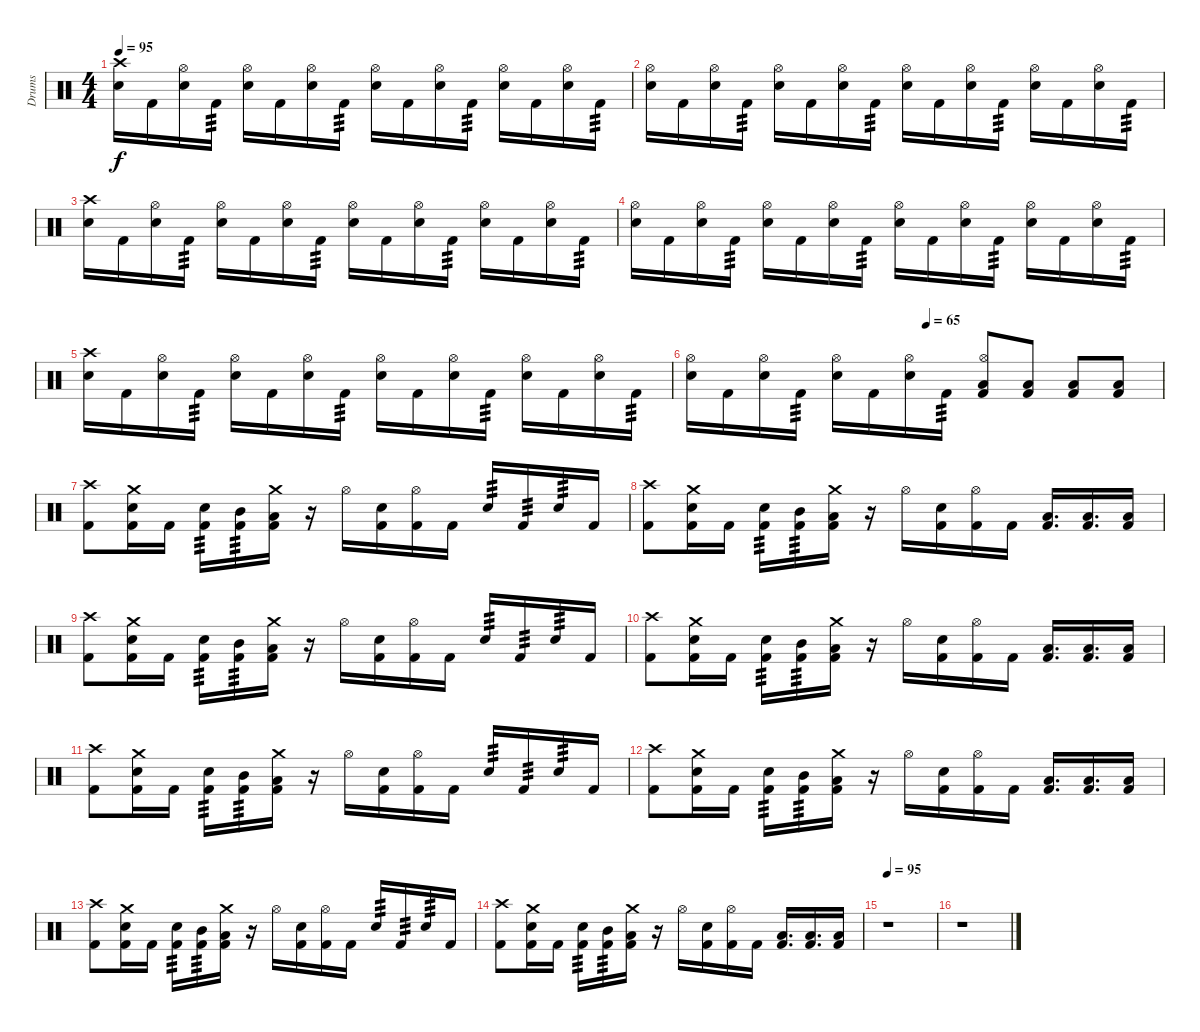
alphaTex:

\track ("Drums" "Drums") {instrument percussion}
\staff {score}
\articulation defaults
\ts (4 4)
\tempo 95
\clef neutral
\ks c
("Crash high (hit)" "Electric Snare (hit)").16{dy f} "Kick (hit) 2".16 ("Hi-Hat (open)" "Electric Snare (hit)").16 "Kick (hit) 2".16{tp 3} ("Hi-Hat (open)" "Electric Snare (hit)").16 "Kick (hit) 2".16 ("Hi-Hat (open)" "Electric Snare (hit)").16 "Kick (hit) 2".16{tp 3} ("Hi-Hat (open)" "Electric Snare (hit)").16 "Kick (hit) 2".16 ("Hi-Hat (open)" "Electric Snare (hit)").16 "Kick (hit) 2".16{tp 3} ("Hi-Hat (open)" "Electric Snare (hit)").16 "Kick (hit) 2".16 ("Hi-Hat (open)" "Electric Snare (hit)").16 "Kick (hit) 2".16{tp 3} |
("Hi-Hat (open)" "Electric Snare (hit)").16 "Kick (hit) 2".16 ("Hi-Hat (open)" "Electric Snare (hit)").16 "Kick (hit) 2".16{tp 3} ("Hi-Hat (open)" "Electric Snare (hit)").16 "Kick (hit) 2".16 ("Hi-Hat (open)" "Electric Snare (hit)").16 "Kick (hit) 2".16{tp 3} ("Hi-Hat (open)" "Electric Snare (hit)").16 "Kick (hit) 2".16 ("Hi-Hat (open)" "Electric Snare (hit)").16 "Kick (hit) 2".16{tp 3} ("Hi-Hat (open)" "Electric Snare (hit)").16 "Kick (hit) 2".16 ("Hi-Hat (open)" "Electric Snare (hit)").16 "Kick (hit) 2".16{tp 3} |
("Crash high (hit)" "Electric Snare (hit)").16 "Kick (hit) 2".16 ("Hi-Hat (open)" "Electric Snare (hit)").16 "Kick (hit) 2".16{tp 3} ("Hi-Hat (open)" "Electric Snare (hit)").16 "Kick (hit) 2".16 ("Hi-Hat (open)" "Electric Snare (hit)").16 "Kick (hit) 2".16{tp 3} ("Hi-Hat (open)" "Electric Snare (hit)").16 "Kick (hit) 2".16 ("Hi-Hat (open)" "Electric Snare (hit)").16 "Kick (hit) 2".16{tp 3} ("Hi-Hat (open)" "Electric Snare (hit)").16 "Kick (hit) 2".16 ("Hi-Hat (open)" "Electric Snare (hit)").16 "Kick (hit) 2".16{tp 3} |
("Hi-Hat (open)" "Electric Snare (hit)").16 "Kick (hit) 2".16 ("Hi-Hat (open)" "Electric Snare (hit)").16 "Kick (hit) 2".16{tp 3} ("Hi-Hat (open)" "Electric Snare (hit)").16 "Kick (hit) 2".16 ("Hi-Hat (open)" "Electric Snare (hit)").16 "Kick (hit) 2".16{tp 3} ("Hi-Hat (open)" "Electric Snare (hit)").16 "Kick (hit) 2".16 ("Hi-Hat (open)" "Electric Snare (hit)").16 "Kick (hit) 2".16{tp 3} ("Hi-Hat (open)" "Electric Snare (hit)").16 "Kick (hit) 2".16 ("Hi-Hat (open)" "Electric Snare (hit)").16 "Kick (hit) 2".16{tp 3} |
("Crash high (hit)" "Electric Snare (hit)").16 "Kick (hit) 2".16 ("Hi-Hat (open)" "Electric Snare (hit)").16 "Kick (hit) 2".16{tp 3} ("Hi-Hat (open)" "Electric Snare (hit)").16 "Kick (hit) 2".16 ("Hi-Hat (open)" "Electric Snare (hit)").16 "Kick (hit) 2".16{tp 3} ("Hi-Hat (open)" "Electric Snare (hit)").16 "Kick (hit) 2".16 ("Hi-Hat (open)" "Electric Snare (hit)").16 "Kick (hit) 2".16{tp 3} ("Hi-Hat (open)" "Electric Snare (hit)").16 "Kick (hit) 2".16 ("Hi-Hat (open)" "Electric Snare (hit)").16 "Kick (hit) 2".16{tp 3} |
\tempo (65 0.5)
("Hi-Hat (open)" "Electric Snare (hit)").16 "Kick (hit) 2".16 ("Hi-Hat (open)" "Electric Snare (hit)").16 "Kick (hit) 2".16{tp 3} ("Hi-Hat (open)" "Electric Snare (hit)").16 "Kick (hit) 2".16 ("Hi-Hat (open)" "Electric Snare (hit)").16 "Kick (hit) 2".16{tp 3} ("Hi-Hat (open)" "Low Floor Tom (hit)" "Kick (hit) 2").8 ("Low Floor Tom (hit)" "Kick (hit) 2").8 ("Low Floor Tom (hit)" "Kick (hit) 2").8 ("Low Floor Tom (hit)" "Kick (hit) 2").8 |
("Crash high (hit)" "Kick (hit) 2").8 ("Crash medium (hit)" "Electric Snare (hit)" "Kick (hit) 2").16 "Kick (hit) 2".16 ("Electric Snare (hit)" "Kick (hit) 2").16{tp 3} ("Mid Tom (hit)" "Kick (hit) 2").16{tp 3} ("Crash medium (hit)" "Low Floor Tom (hit)" "Kick (hit) 2").16 r.16 "Hi-Hat (open)".16 ("Electric Snare (hit)" "Kick (hit) 2").16 ("Hi-Hat (open)" "Kick (hit) 2").16 "Kick (hit) 2".16 "Electric Snare (hit)".16{tp 3} "Kick (hit) 2".16{tp 3} "Electric Snare (hit)".16{tp 3} "Kick (hit) 2".16 |
("Crash high (hit)" "Kick (hit) 2").8 ("Crash medium (hit)" "Electric Snare (hit)" "Kick (hit) 2").16 "Kick (hit) 2".16 ("Electric Snare (hit)" "Kick (hit) 2").16{tp 3} ("Mid Tom (hit)" "Kick (hit) 2").16{tp 3} ("Crash medium (hit)" "Low Floor Tom (hit)" "Kick (hit) 2").16 r.16 "Hi-Hat (open)".16 ("Electric Snare (hit)" "Kick (hit) 2").16 ("Hi-Hat (open)" "Kick (hit) 2").16 "Kick (hit) 2".16 ("Low Floor Tom (hit)" "Kick (hit) 2").16{d} ("Low Floor Tom (hit)" "Kick (hit) 2").16{d} ("Low Floor Tom (hit)" "Kick (hit) 2").16 |
("Crash high (hit)" "Kick (hit) 2").8 ("Crash medium (hit)" "Electric Snare (hit)" "Kick (hit) 2").16 "Kick (hit) 2".16 ("Electric Snare (hit)" "Kick (hit) 2").16{tp 3} ("Mid Tom (hit)" "Kick (hit) 2").16{tp 3} ("Crash medium (hit)" "Low Floor Tom (hit)" "Kick (hit) 2").16 r.16 "Hi-Hat (open)".16 ("Electric Snare (hit)" "Kick (hit) 2").16 ("Hi-Hat (open)" "Kick (hit) 2").16 "Kick (hit) 2".16 "Electric Snare (hit)".16{tp 3} "Kick (hit) 2".16{tp 3} "Electric Snare (hit)".16{tp 3} "Kick (hit) 2".16 |
("Crash high (hit)" "Kick (hit) 2").8 ("Crash medium (hit)" "Electric Snare (hit)" "Kick (hit) 2").16 "Kick (hit) 2".16 ("Electric Snare (hit)" "Kick (hit) 2").16{tp 3} ("Mid Tom (hit)" "Kick (hit) 2").16{tp 3} ("Crash medium (hit)" "Low Floor Tom (hit)" "Kick (hit) 2").16 r.16 "Hi-Hat (open)".16 ("Electric Snare (hit)" "Kick (hit) 2").16 ("Hi-Hat (open)" "Kick (hit) 2").16 "Kick (hit) 2".16 ("Low Floor Tom (hit)" "Kick (hit) 2").16{d} ("Low Floor Tom (hit)" "Kick (hit) 2").16{d} ("Low Floor Tom (hit)" "Kick (hit) 2").16 |
("Crash high (hit)" "Kick (hit) 2").8 ("Crash medium (hit)" "Electric Snare (hit)" "Kick (hit) 2").16 "Kick (hit) 2".16 ("Electric Snare (hit)" "Kick (hit) 2").16{tp 3} ("Mid Tom (hit)" "Kick (hit) 2").16{tp 3} ("Crash medium (hit)" "Low Floor Tom (hit)" "Kick (hit) 2").16 r.16 "Hi-Hat (open)".16 ("Electric Snare (hit)" "Kick (hit) 2").16 ("Hi-Hat (open)" "Kick (hit) 2").16 "Kick (hit) 2".16 "Electric Snare (hit)".16{tp 3} "Kick (hit) 2".16{tp 3} "Electric Snare (hit)".16{tp 3} "Kick (hit) 2".16 |
("Crash high (hit)" "Kick (hit) 2").8 ("Crash medium (hit)" "Electric Snare (hit)" "Kick (hit) 2").16 "Kick (hit) 2".16 ("Electric Snare (hit)" "Kick (hit) 2").16{tp 3} ("Mid Tom (hit)" "Kick (hit) 2").16{tp 3} ("Crash medium (hit)" "Low Floor Tom (hit)" "Kick (hit) 2").16 r.16 "Hi-Hat (open)".16 ("Electric Snare (hit)" "Kick (hit) 2").16 ("Hi-Hat (open)" "Kick (hit) 2").16 "Kick (hit) 2".16 ("Low Floor Tom (hit)" "Kick (hit) 2").16{d} ("Low Floor Tom (hit)" "Kick (hit) 2").16{d} ("Low Floor Tom (hit)" "Kick (hit) 2").16 |
("Crash high (hit)" "Kick (hit) 2").8 ("Crash medium (hit)" "Electric Snare (hit)" "Kick (hit) 2").16 "Kick (hit) 2".16 ("Electric Snare (hit)" "Kick (hit) 2").16{tp 3} ("Mid Tom (hit)" "Kick (hit) 2").16{tp 3} ("Crash medium (hit)" "Low Floor Tom (hit)" "Kick (hit) 2").16 r.16 "Hi-Hat (open)".16 ("Electric Snare (hit)" "Kick (hit) 2").16 ("Hi-Hat (open)" "Kick (hit) 2").16 "Kick (hit) 2".16 "Electric Snare (hit)".16{tp 3} "Kick (hit) 2".16{tp 3} "Electric Snare (hit)".16{tp 3} "Kick (hit) 2".16 |
("Crash high (hit)" "Kick (hit) 2").8 ("Crash medium (hit)" "Electric Snare (hit)" "Kick (hit) 2").16 "Kick (hit) 2".16 ("Electric Snare (hit)" "Kick (hit) 2").16{tp 3} ("Mid Tom (hit)" "Kick (hit) 2").16{tp 3} ("Crash medium (hit)" "Low Floor Tom (hit)" "Kick (hit) 2").16 r.16 "Hi-Hat (open)".16 ("Electric Snare (hit)" "Kick (hit) 2").16 ("Hi-Hat (open)" "Kick (hit) 2").16 "Kick (hit) 2".16 ("Low Floor Tom (hit)" "Kick (hit) 2").16{d} ("Low Floor Tom (hit)" "Kick (hit) 2").16{d} ("Low Floor Tom (hit)" "Kick (hit) 2").16 |
\tempo 95
r.1 |
r.1
